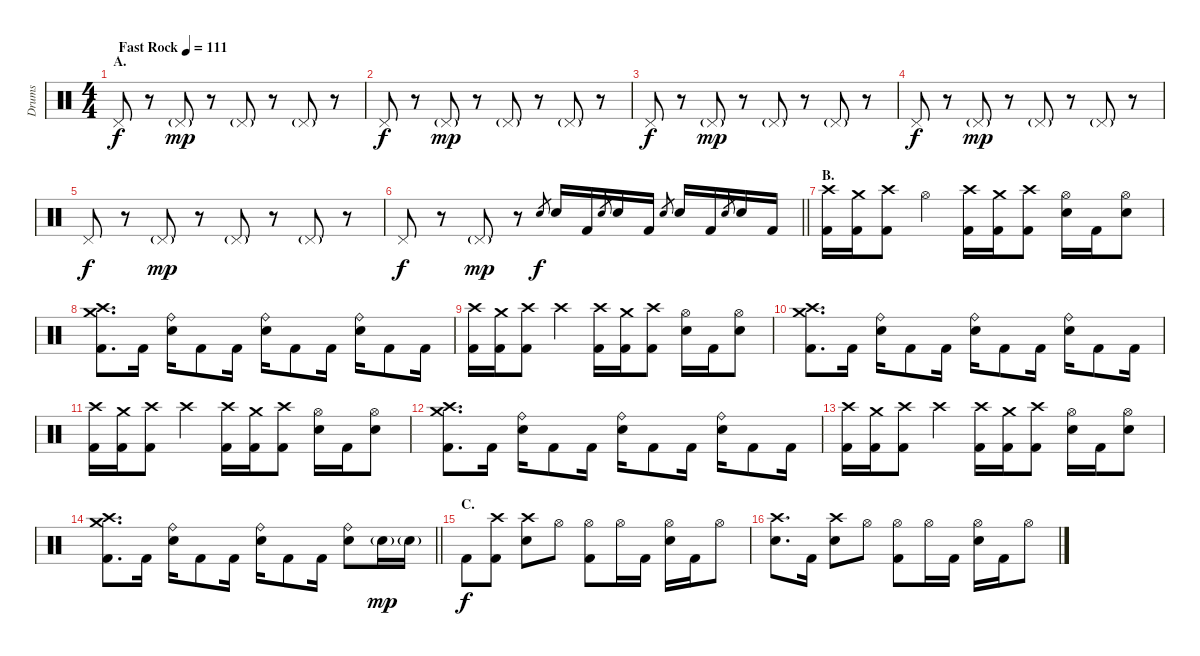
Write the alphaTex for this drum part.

\track ("Drums" "Drums") {instrument percussion}
\staff {score}
\articulation defaults
\ts (4 4)
\section ("" "A.")
\tempo (111 "Fast Rock")
\clef neutral
\ks c "Pedal Hi-Hat (hit)".8{dy f}
r.8 "Pedal Hi-Hat (hit)"{g}.8{dy mp} r.8 "Pedal Hi-Hat (hit)"{g}.8 r.8 "Pedal Hi-Hat (hit)"{g}.8 r.8 |
"Pedal Hi-Hat (hit)".8{dy f} r.8 "Pedal Hi-Hat (hit)"{g}.8{dy mp} r.8 "Pedal Hi-Hat (hit)"{g}.8 r.8 "Pedal Hi-Hat (hit)"{g}.8 r.8 |
"Pedal Hi-Hat (hit)".8{dy f} r.8 "Pedal Hi-Hat (hit)"{g}.8{dy mp} r.8 "Pedal Hi-Hat (hit)"{g}.8 r.8 "Pedal Hi-Hat (hit)"{g}.8 r.8 |
"Pedal Hi-Hat (hit)".8{dy f} r.8 "Pedal Hi-Hat (hit)"{g}.8{dy mp} r.8 "Pedal Hi-Hat (hit)"{g}.8 r.8 "Pedal Hi-Hat (hit)"{g}.8 r.8 |
"Pedal Hi-Hat (hit)".8{dy f} r.8 "Pedal Hi-Hat (hit)"{g}.8{dy mp} r.8 "Pedal Hi-Hat (hit)"{g}.8 r.8 "Pedal Hi-Hat (hit)"{g}.8 r.8 |
\barLineRight lightlight "Pedal Hi-Hat (hit)".8{dy f}
r.8 "Pedal Hi-Hat (hit)"{g}.8{dy mp} r.8 "Electric Snare (hit)".8{gr dy f} "Electric Snare (hit)".16 "Kick (hit) 2".16 "Electric Snare (hit)".8{gr} "Electric Snare (hit)".16 "Kick (hit) 2".16 "Electric Snare (hit)".8{gr} "Electric Snare (hit)".16 "Kick (hit) 2".16 "Electric Snare (hit)".8{gr} "Electric Snare (hit)".16 "Kick (hit) 2".16 |
\section ("" "B.")
("Crash high (hit)" "Kick (hit) 2").16 ("Crash medium (hit)" "Kick (hit) 2").16 ("Crash high (hit)" "Kick (hit) 2").8 "Hi-Hat (open)".4 ("Crash high (hit)" "Kick (hit) 2").16 ("Crash medium (hit)" "Kick (hit) 2").16 ("Crash high (hit)" "Kick (hit) 2").8 ("Hi-Hat (open)" "Electric Snare (hit)").16 "Kick (hit) 2".16 ("Hi-Hat (open)" "Electric Snare (hit)").8 |
("Crash medium (hit)" "Crash high (hit)" "Kick (hit) 2").8{d} "Kick (hit) 2".16 ("Ride (bell)" "Electric Snare (hit)").16 "Kick (hit) 2".8 "Kick (hit) 2".16 ("Ride (bell)" "Electric Snare (hit)").16 "Kick (hit) 2".8 "Kick (hit) 2".16 ("Ride (bell)" "Electric Snare (hit)").16 "Kick (hit) 2".8 "Kick (hit) 2".16 |
("Crash high (hit)" "Kick (hit) 2").16 ("Crash medium (hit)" "Kick (hit) 2").16 ("Crash high (hit)" "Kick (hit) 2").8 "Crash high (hit)".4 ("Crash high (hit)" "Kick (hit) 2").16 ("Crash medium (hit)" "Kick (hit) 2").16 ("Crash high (hit)" "Kick (hit) 2").8 ("Hi-Hat (open)" "Electric Snare (hit)").16 "Kick (hit) 2".16 ("Hi-Hat (open)" "Electric Snare (hit)").8 |
("Crash medium (hit)" "Crash high (hit)" "Kick (hit) 2").8{d} "Kick (hit) 2".16 ("Ride (bell)" "Electric Snare (hit)").16 "Kick (hit) 2".8 "Kick (hit) 2".16 ("Ride (bell)" "Electric Snare (hit)").16 "Kick (hit) 2".8 "Kick (hit) 2".16 ("Ride (bell)" "Electric Snare (hit)").16 "Kick (hit) 2".8 "Kick (hit) 2".16 |
("Crash high (hit)" "Kick (hit) 2").16 ("Crash medium (hit)" "Kick (hit) 2").16 ("Crash high (hit)" "Kick (hit) 2").8 "Crash high (hit)".4 ("Crash high (hit)" "Kick (hit) 2").16 ("Crash medium (hit)" "Kick (hit) 2").16 ("Crash high (hit)" "Kick (hit) 2").8 ("Hi-Hat (open)" "Electric Snare (hit)").16 "Kick (hit) 2".16 ("Hi-Hat (open)" "Electric Snare (hit)").8 |
("Crash medium (hit)" "Crash high (hit)" "Kick (hit) 2").8{d} "Kick (hit) 2".16 ("Ride (bell)" "Electric Snare (hit)").16 "Kick (hit) 2".8 "Kick (hit) 2".16 ("Ride (bell)" "Electric Snare (hit)").16 "Kick (hit) 2".8 "Kick (hit) 2".16 ("Ride (bell)" "Electric Snare (hit)").16 "Kick (hit) 2".8 "Kick (hit) 2".16 |
("Crash high (hit)" "Kick (hit) 2").16 ("Crash medium (hit)" "Kick (hit) 2").16 ("Crash high (hit)" "Kick (hit) 2").8 "Crash high (hit)".4 ("Crash high (hit)" "Kick (hit) 2").16 ("Crash medium (hit)" "Kick (hit) 2").16 ("Crash high (hit)" "Kick (hit) 2").8 ("Hi-Hat (open)" "Electric Snare (hit)").16 "Kick (hit) 2".16 ("Hi-Hat (open)" "Electric Snare (hit)").8 |
\barLineRight lightlight
("Crash medium (hit)" "Crash high (hit)" "Kick (hit) 2").8{d} "Kick (hit) 2".16 ("Ride (bell)" "Electric Snare (hit)").16 "Kick (hit) 2".8 "Kick (hit) 2".16 ("Ride (bell)" "Electric Snare (hit)").16 "Kick (hit) 2".8 "Kick (hit) 2".16 ("Ride (bell)" "Electric Snare (hit)").8 "Electric Snare (hit)"{g}.16{dy mp} "Electric Snare (hit)"{g}.16 |
\section ("" "C.")
"Kick (hit) 2".8{dy f} ("Crash high (hit)" "Kick (hit) 2").8 ("Crash high (hit)" "Electric Snare (hit)").8 "Hi-Hat (open)".8 ("Hi-Hat (open)" "Kick (hit) 2").8 "Hi-Hat (open)".16 "Kick (hit) 2".16 ("Hi-Hat (open)" "Electric Snare (hit)").16 "Kick (hit) 2".16 "Hi-Hat (open)".8 |
("Crash high (hit)" "Electric Snare (hit)").8{d} "Kick (hit) 2".16 ("Crash high (hit)" "Electric Snare (hit)").8 "Hi-Hat (open)".8 ("Hi-Hat (open)" "Kick (hit) 2").8 "Hi-Hat (open)".16 "Kick (hit) 2".16 ("Hi-Hat (open)" "Electric Snare (hit)").16 "Kick (hit) 2".16 "Hi-Hat (open)".8
